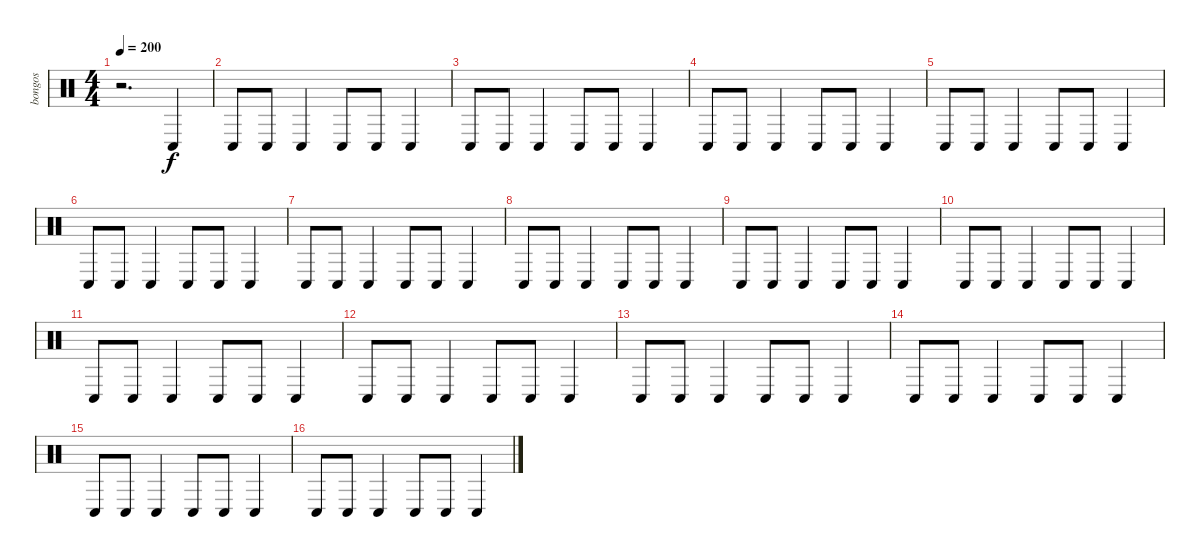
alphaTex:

\track ("bongos" "bongos") {instrument percussion}
\staff {score}
\articulation defaults
\ts (4 4)
\tempo 200
\clef neutral
\ks c
r.2{d dy f} "Conga low (hit)".4 |
"Conga low (hit)".8 "Conga low (hit)".8 "Conga low (hit)".4 "Conga low (hit)".8 "Conga low (hit)".8 "Conga low (hit)".4 |
"Conga low (hit)".8 "Conga low (hit)".8 "Conga low (hit)".4 "Conga low (hit)".8 "Conga low (hit)".8 "Conga low (hit)".4 |
"Conga low (hit)".8 "Conga low (hit)".8 "Conga low (hit)".4 "Conga low (hit)".8 "Conga low (hit)".8 "Conga low (hit)".4 |
"Conga low (hit)".8 "Conga low (hit)".8 "Conga low (hit)".4 "Conga low (hit)".8 "Conga low (hit)".8 "Conga low (hit)".4 |
"Conga low (hit)".8 "Conga low (hit)".8 "Conga low (hit)".4 "Conga low (hit)".8 "Conga low (hit)".8 "Conga low (hit)".4 |
"Conga low (hit)".8 "Conga low (hit)".8 "Conga low (hit)".4 "Conga low (hit)".8 "Conga low (hit)".8 "Conga low (hit)".4 |
"Conga low (hit)".8 "Conga low (hit)".8 "Conga low (hit)".4 "Conga low (hit)".8 "Conga low (hit)".8 "Conga low (hit)".4 |
"Conga low (hit)".8 "Conga low (hit)".8 "Conga low (hit)".4 "Conga low (hit)".8 "Conga low (hit)".8 "Conga low (hit)".4 |
"Conga low (hit)".8 "Conga low (hit)".8 "Conga low (hit)".4 "Conga low (hit)".8 "Conga low (hit)".8 "Conga low (hit)".4 |
"Conga low (hit)".8 "Conga low (hit)".8 "Conga low (hit)".4 "Conga low (hit)".8 "Conga low (hit)".8 "Conga low (hit)".4 |
"Conga low (hit)".8 "Conga low (hit)".8 "Conga low (hit)".4 "Conga low (hit)".8 "Conga low (hit)".8 "Conga low (hit)".4 |
"Conga low (hit)".8 "Conga low (hit)".8 "Conga low (hit)".4 "Conga low (hit)".8 "Conga low (hit)".8 "Conga low (hit)".4 |
"Conga low (hit)".8 "Conga low (hit)".8 "Conga low (hit)".4 "Conga low (hit)".8 "Conga low (hit)".8 "Conga low (hit)".4 |
"Conga low (hit)".8 "Conga low (hit)".8 "Conga low (hit)".4 "Conga low (hit)".8 "Conga low (hit)".8 "Conga low (hit)".4 |
"Conga low (hit)".8 "Conga low (hit)".8 "Conga low (hit)".4 "Conga low (hit)".8 "Conga low (hit)".8 "Conga low (hit)".4
